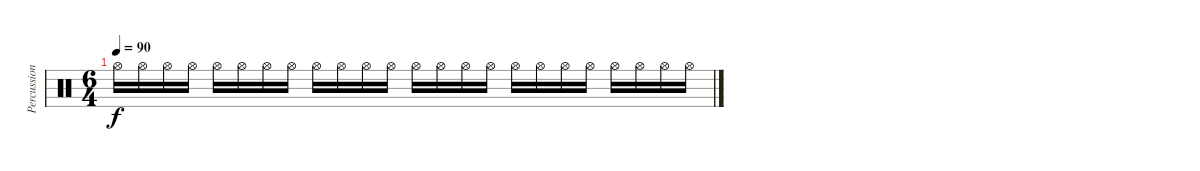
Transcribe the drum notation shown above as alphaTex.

\track ("Percussion" "Percussion") {instrument percussion}
\staff {score}
\articulation defaults
\ts (6 4)
\tempo 90
\clef neutral
\ks c "Hi-Hat (open)".16{dy f volume 0} "Hi-Hat (open)".16{volume 11} "Hi-Hat (open)".16 "Hi-Hat (open)".16 "Hi-Hat (open)".16 "Hi-Hat (open)".16 "Hi-Hat (open)".16 "Hi-Hat (open)".16 "Hi-Hat (open)".16 "Hi-Hat (open)".16 "Hi-Hat (open)".16 "Hi-Hat (open)".16 "Hi-Hat (open)".16 "Hi-Hat (open)".16 "Hi-Hat (open)".16 "Hi-Hat (open)".16 "Hi-Hat (open)".16 "Hi-Hat (open)".16 "Hi-Hat (open)".16 "Hi-Hat (open)".16 "Hi-Hat (open)".16 "Hi-Hat (open)".16 "Hi-Hat (open)".16 "Hi-Hat (open)".16
